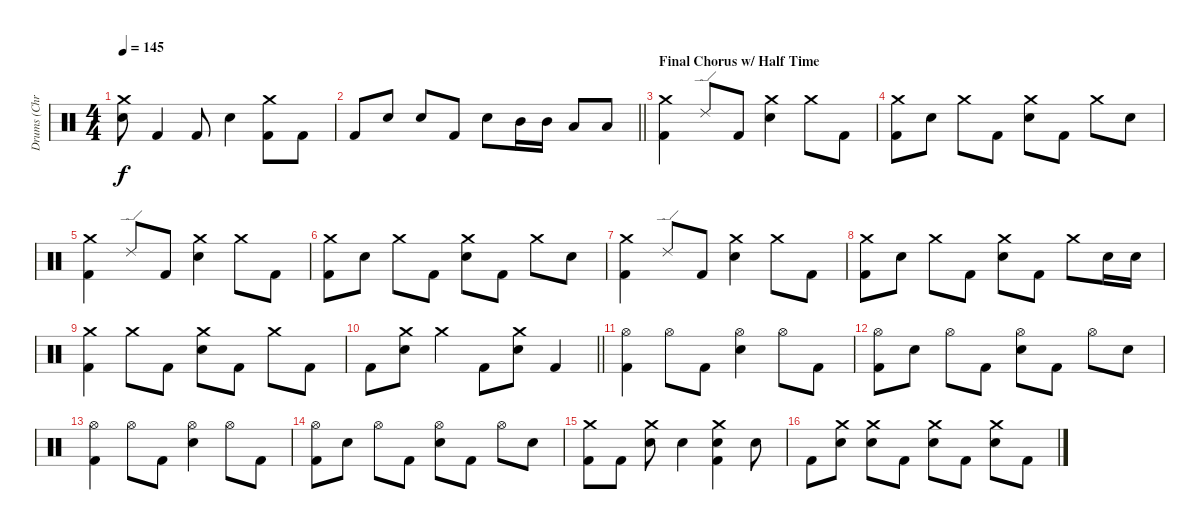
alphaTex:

\track ("Drums (Chris)" "Drums (Chr") {instrument percussion}
\staff {score}
\articulation defaults
\ts (4 4)
\tempo 145
\clef neutral
\ks c
("Crash medium (hit)" "Electric Snare (hit)").8{dy f} "Kick (hit) 2".4 "Kick (hit) 2".8 "Electric Snare (hit)".4 ("Crash medium (hit)" "Kick (hit) 2").8 "Kick (hit) 2".8 |
\barLineRight lightlight "Kick (hit) 2".8 "Electric Snare (hit)".8 "Electric Snare (hit)".8 "Kick (hit) 2".8 "Electric Snare (hit)".8 "Mid Tom (hit)".16 "Mid Tom (hit)".16 "Low Tom (hit)".8 "Low Floor Tom (hit)".8
|
\section ("" "Final Chorus w/ Half Time")
("Crash medium (hit)" "Kick (hit) 2").4 "Ride (edge) 2".8 "Kick (hit) 2".8 ("Crash medium (hit)" "Electric Snare (hit)").4 "Crash medium (hit)".8 "Kick (hit) 2".8 |
("Crash medium (hit)" "Kick (hit) 2").8 "Electric Snare (hit)".8 "Crash medium (hit)".8 "Kick (hit) 2".8 ("Crash medium (hit)" "Electric Snare (hit)").8 "Kick (hit) 2".8 "Crash medium (hit)".8 "Electric Snare (hit)".8 |
("Crash medium (hit)" "Kick (hit) 2").4 "Ride (edge) 2".8 "Kick (hit) 2".8 ("Crash medium (hit)" "Electric Snare (hit)").4 "Crash medium (hit)".8 "Kick (hit) 2".8 |
("Crash medium (hit)" "Kick (hit) 2").8 "Electric Snare (hit)".8 "Crash medium (hit)".8 "Kick (hit) 2".8 ("Crash medium (hit)" "Electric Snare (hit)").8 "Kick (hit) 2".8 "Crash medium (hit)".8 "Electric Snare (hit)".8 |
("Crash medium (hit)" "Kick (hit) 2").4 "Ride (edge) 2".8 "Kick (hit) 2".8 ("Crash medium (hit)" "Electric Snare (hit)").4 "Crash medium (hit)".8 "Kick (hit) 2".8 |
("Crash medium (hit)" "Kick (hit) 2").8 "Electric Snare (hit)".8 "Crash medium (hit)".8 "Kick (hit) 2".8 ("Crash medium (hit)" "Electric Snare (hit)").8 "Kick (hit) 2".8 "Crash medium (hit)".8 "Electric Snare (hit)".16 "Electric Snare (hit)".16 |
("Crash medium (hit)" "Kick (hit) 2").4 "Crash medium (hit)".8 "Kick (hit) 2".8 ("Crash medium (hit)" "Electric Snare (hit)").8 "Kick (hit) 2".8 "Crash medium (hit)".8 "Kick (hit) 2".8 |
\barLineRight lightlight "Kick (hit) 2".8
("Crash medium (hit)" "Electric Snare (hit)").8 "Crash medium (hit)".4 "Kick (hit) 2".8 ("Crash medium (hit)" "Electric Snare (hit)").8 "Kick (hit) 2".4 |
("Hi-Hat (open)" "Kick (hit) 2").4 "Hi-Hat (open)".8 "Kick (hit) 2".8 ("Hi-Hat (open)" "Electric Snare (hit)").4 "Hi-Hat (open)".8 "Kick (hit) 2".8 |
("Hi-Hat (open)" "Kick (hit) 2").8 "Electric Snare (hit)".8 "Hi-Hat (open)".8 "Kick (hit) 2".8 ("Hi-Hat (open)" "Electric Snare (hit)").8 "Kick (hit) 2".8 "Hi-Hat (open)".8 "Electric Snare (hit)".8 |
("Hi-Hat (open)" "Kick (hit) 2").4 "Hi-Hat (open)".8 "Kick (hit) 2".8 ("Hi-Hat (open)" "Electric Snare (hit)").4 "Hi-Hat (open)".8 "Kick (hit) 2".8 |
("Hi-Hat (open)" "Kick (hit) 2").8 "Electric Snare (hit)".8 "Hi-Hat (open)".8 "Kick (hit) 2".8 ("Hi-Hat (open)" "Electric Snare (hit)").8 "Kick (hit) 2".8 "Hi-Hat (open)".8 "Electric Snare (hit)".8 |
("Crash medium (hit)" "Kick (hit) 2").8 "Kick (hit) 2".8 ("Crash medium (hit)" "Electric Snare (hit)").8 "Electric Snare (hit)".4 ("Crash medium (hit)" "Electric Snare (hit)" "Kick (hit) 2").4 "Electric Snare (hit)".8 |
"Kick (hit) 2".8 ("Crash medium (hit)" "Electric Snare (hit)").8 ("Crash medium (hit)" "Electric Snare (hit)").8 "Kick (hit) 2".8 ("Crash medium (hit)" "Electric Snare (hit)").8 "Kick (hit) 2".8 ("Crash medium (hit)" "Electric Snare (hit)").8 "Kick (hit) 2".8
